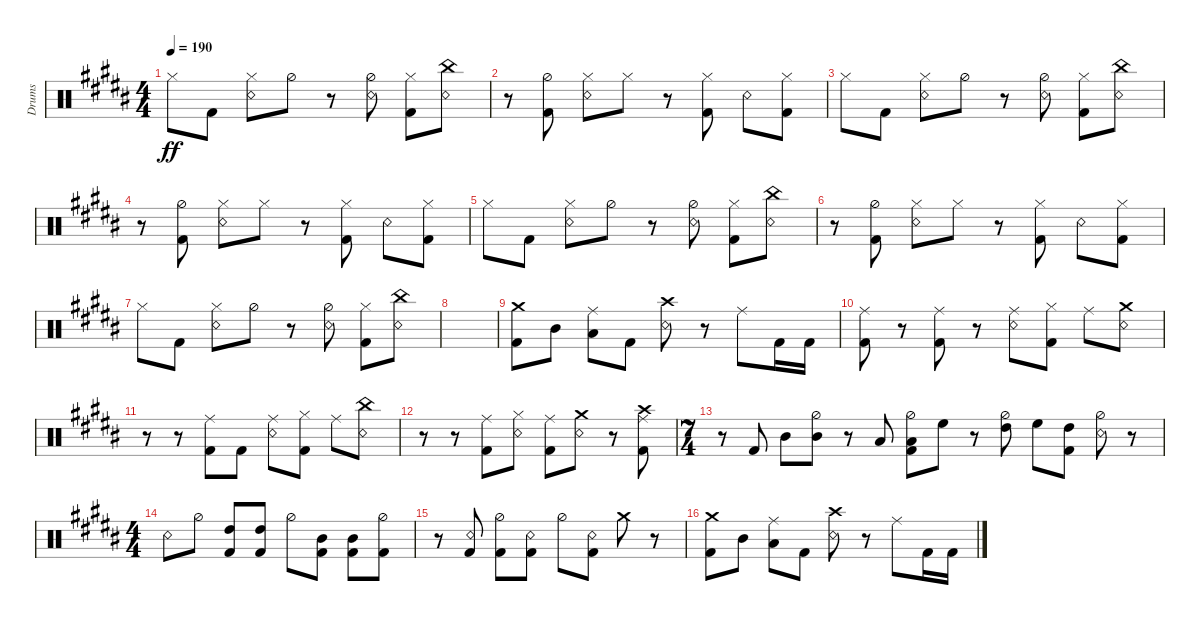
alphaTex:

\bracketExtendMode groupsimilarinstruments
\otherSystemsTrackNameOrientation horizontal
\track ("Drumkit" "Drums") {instrument percussion}
\staff {score}
\articulation defaults
\ts (4 4)
\tempo 190
\clef neutral
\ks b "Hi-Hat (closed)"{acc forcenatural}.8{dy ff} "Kick (hit) 2"{acc forcenatural}.8
("Snare (rim shot)"{acc forcenatural} "Hi-Hat (closed)"{acc forcenatural}).8 "Hi-Hat (half)"{acc forcenatural}.8 r.8 ("Hi-Hat (half)"{acc forcenatural} "Snare (rim shot)"{acc forcenatural}).8 ("Hi-Hat (closed)"{acc forcenatural} "Kick (hit) 2"{acc forcenatural}).8 ("Snare (rim shot)"{acc forcenatural} "China (hit)"{acc forcenatural}).8 |
r.8 ("Kick (hit) 2"{acc forcenatural} "Hi-Hat (half)"{acc forcenatural}).8 ("Snare (rim shot)"{acc forcenatural} "Hi-Hat (closed)"{acc forcenatural}).8 "Hi-Hat (closed)"{acc forcenatural}.8 r.8 ("Hi-Hat (closed)"{acc forcenatural} "Kick (hit) 2"{acc forcenatural}).8 "Snare (rim shot)"{acc forcenatural}.8 ("Kick (hit) 2"{acc forcenatural} "Hi-Hat (closed)"{acc forcenatural}).8 |
"Hi-Hat (closed)"{acc forcenatural}.8 "Kick (hit) 2"{acc forcenatural}.8 ("Snare (rim shot)"{acc forcenatural} "Hi-Hat (closed)"{acc forcenatural}).8 "Hi-Hat (half)"{acc forcenatural}.8 r.8 ("Hi-Hat (half)"{acc forcenatural} "Snare (rim shot)"{acc forcenatural}).8 ("Hi-Hat (closed)"{acc forcenatural} "Kick (hit) 2"{acc forcenatural}).8 ("Snare (rim shot)"{acc forcenatural} "China (hit)"{acc forcenatural}).8 |
r.8 ("Kick (hit) 2"{acc forcenatural} "Hi-Hat (half)"{acc forcenatural}).8 ("Snare (rim shot)"{acc forcenatural} "Hi-Hat (closed)"{acc forcenatural}).8 "Hi-Hat (closed)"{acc forcenatural}.8 r.8 ("Hi-Hat (closed)"{acc forcenatural} "Kick (hit) 2"{acc forcenatural}).8 "Snare (rim shot)"{acc forcenatural}.8 ("Kick (hit) 2"{acc forcenatural} "Hi-Hat (closed)"{acc forcenatural}).8 |
"Hi-Hat (closed)"{acc forcenatural}.8 "Kick (hit) 2"{acc forcenatural}.8 ("Snare (rim shot)"{acc forcenatural} "Hi-Hat (closed)"{acc forcenatural}).8 "Hi-Hat (half)"{acc forcenatural}.8 r.8 ("Hi-Hat (half)"{acc forcenatural} "Snare (rim shot)"{acc forcenatural}).8 ("Hi-Hat (closed)"{acc forcenatural} "Kick (hit) 2"{acc forcenatural}).8 ("Snare (rim shot)"{acc forcenatural} "China (hit)"{acc forcenatural}).8 |
r.8 ("Kick (hit) 2"{acc forcenatural} "Hi-Hat (half)"{acc forcenatural}).8 ("Snare (rim shot)"{acc forcenatural} "Hi-Hat (closed)"{acc forcenatural}).8 "Hi-Hat (closed)"{acc forcenatural}.8 r.8 ("Hi-Hat (closed)"{acc forcenatural} "Kick (hit) 2"{acc forcenatural}).8 "Snare (rim shot)"{acc forcenatural}.8 ("Kick (hit) 2"{acc forcenatural} "Hi-Hat (closed)"{acc forcenatural}).8 |
"Hi-Hat (closed)"{acc forcenatural}.8 "Kick (hit) 2"{acc forcenatural}.8 ("Snare (rim shot)"{acc forcenatural} "Hi-Hat (closed)"{acc forcenatural}).8 "Hi-Hat (half)"{acc forcenatural}.8 r.8 ("Hi-Hat (half)"{acc forcenatural} "Snare (rim shot)"{acc forcenatural}).8 ("Hi-Hat (closed)"{acc forcenatural} "Kick (hit) 2"{acc forcenatural}).8 ("Snare (rim shot)"{acc forcenatural} "China (hit)"{acc forcenatural}).8 |
|
("Crash medium (hit)"{acc forcenatural} "Kick (hit) 2"{acc forcenatural}).8 "Mid Tom (hit)"{acc forcenatural}.8 ("Low Tom (hit)"{acc forcenatural} "Ride (middle)"{acc forcenatural}).8 "Kick (hit) 2"{acc forcenatural}.8 ("Snare (rim shot)"{acc forcenatural} "Crash high (hit)"{acc forcenatural}).8 r.8 "Ride (middle)"{acc forcenatural}.8 "Kick (hit) 2"{acc forcenatural}.16 "Kick (hit) 2"{acc forcenatural}.16 |
("Kick (hit) 2"{acc forcenatural} "Ride (middle)"{acc forcenatural}).8 r.8 ("Kick (hit) 2"{acc forcenatural} "Ride (middle)"{acc forcenatural}).8 r.8 ("Snare (rim shot)"{acc forcenatural} "Ride (middle)"{acc forcenatural}).8 ("Kick (hit) 2"{acc forcenatural} "Hi-Hat (closed)"{acc forcenatural}).8 "Ride (middle)"{acc forcenatural}.8 ("Snare (rim shot)"{acc forcenatural} "Crash medium (hit)"{acc forcenatural}).8 |
r.8 r.8 ("Kick (hit) 2"{acc forcenatural} "Ride (middle)"{acc forcenatural}).8 "Kick (hit) 2"{acc forcenatural}.8 ("Snare (rim shot)"{acc forcenatural} "Ride (middle)"{acc forcenatural}).8 ("Kick (hit) 2"{acc forcenatural} "Hi-Hat (closed)"{acc forcenatural}).8 "Ride (middle)"{acc forcenatural}.8 ("Snare (rim shot)"{acc forcenatural} "China (hit)"{acc forcenatural}).8 |
r.8 r.8 ("Kick (hit) 2"{acc forcenatural} "Ride (middle)"{acc forcenatural}).8 ("Snare (rim shot)"{acc forcenatural} "Hi-Hat (closed)"{acc forcenatural}).8 ("Kick (hit) 2"{acc forcenatural} "Ride (middle)"{acc forcenatural}).8 ("Snare (rim shot)"{acc forcenatural} "Crash medium (hit)"{acc forcenatural}).8 r.8 ("Kick (hit) 2"{acc forcenatural} "Ride (middle)"{acc forcenatural} "Crash high (hit)"{acc forcenatural}).8 |
\ts (7 4)
r.8 "Kick (hit) 2"{acc forcenatural}.8 "Mid Tom (hit)"{acc forcenatural}.8 ("Hi-Hat (half)"{acc forcenatural} "Mid Tom (hit)"{acc forcenatural}).8 r.8 "Low Tom (hit)"{acc forcenatural}.8 ("Hi-Hat (half)"{acc forcenatural} "Kick (hit) 2"{acc forcenatural} "Low Tom (hit)"{acc forcenatural}).8 "High Floor Tom (hit)"{acc forcenatural}.8 r.8 ("Hi-Hat (half)"{acc forcenatural} "High Tom (hit)"{acc forcenatural}).8 "High Floor Tom (hit)"{acc forcenatural}.8 ("Kick (hit) 2"{acc forcenatural} "High Tom (hit)"{acc forcenatural}).8 ("Snare (rim shot)"{acc forcenatural} "Hi-Hat (half)"{acc forcenatural}).8 r.8 |
\ts (4 4)
"Snare (rim shot)"{acc forcenatural}.8 "Hi-Hat (half)"{acc forcenatural}.8 ("Kick (hit) 2"{acc forcenatural} "High Tom (hit)"{acc forcenatural}).8 ("Kick (hit) 2"{acc forcenatural} "High Tom (hit)"{acc forcenatural}).8 "Hi-Hat (half)"{acc forcenatural}.8 ("Kick (hit) 2"{acc forcenatural} "Mid Tom (hit)"{acc forcenatural}).8 ("Kick (hit) 2"{acc forcenatural} "Mid Tom (hit)"{acc forcenatural}).8 ("Kick (hit) 2"{acc forcenatural} "Hi-Hat (half)"{acc forcenatural}).8 |
r.8 ("Kick (hit) 2"{acc forcenatural} "Snare (rim shot)"{acc forcenatural}).8 ("Kick (hit) 2"{acc forcenatural} "Hi-Hat (half)"{acc forcenatural}).8 ("Kick (hit) 2"{acc forcenatural} "Snare (rim shot)"{acc forcenatural}).8 "Hi-Hat (half)"{acc forcenatural}.8 ("Kick (hit) 2"{acc forcenatural} "Snare (rim shot)"{acc forcenatural}).8 "Crash medium (hit)"{acc forcenatural}.8 r.8 |
("Crash medium (hit)"{acc forcenatural} "Kick (hit) 2"{acc forcenatural}).8 "Mid Tom (hit)"{acc forcenatural}.8 ("Low Tom (hit)"{acc forcenatural} "Ride (middle)"{acc forcenatural}).8 "Kick (hit) 2"{acc forcenatural}.8 ("Snare (rim shot)"{acc forcenatural} "Crash high (hit)"{acc forcenatural}).8 r.8 "Ride (middle)"{acc forcenatural}.8 "Kick (hit) 2"{acc forcenatural}.16 "Kick (hit) 2"{acc forcenatural}.16
